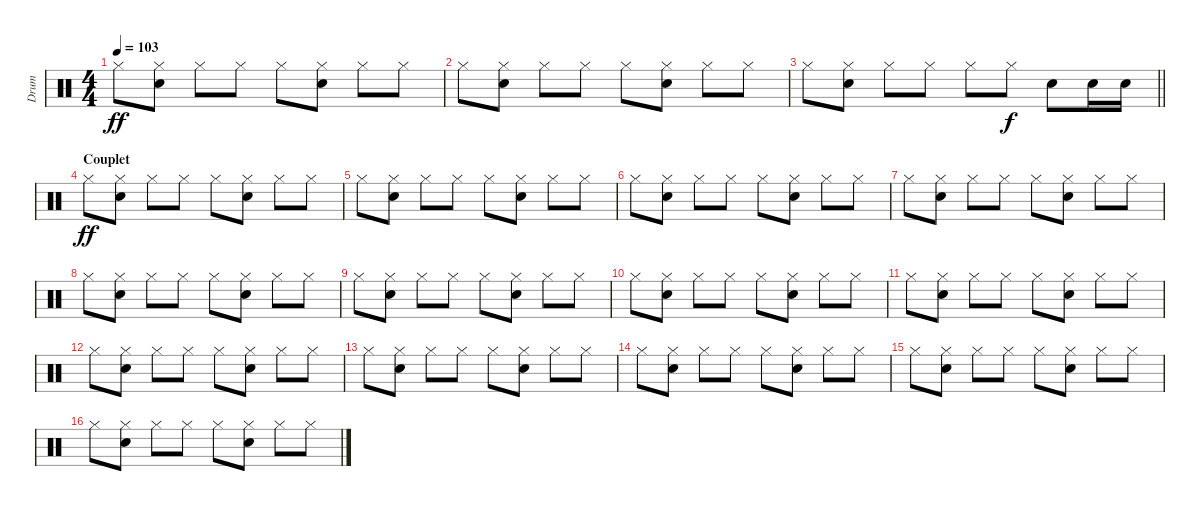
\track ("Drum" "Drum") {instrument percussion}
\staff {score}
\articulation defaults
\ts (4 4)
\tempo 103
\clef neutral
\ks c "Hi-Hat (closed)".8{dy ff}
("Hi-Hat (closed)" "Electric Snare (hit)").8 "Hi-Hat (closed)".8 "Hi-Hat (closed)".8 "Hi-Hat (closed)".8 ("Hi-Hat (closed)" "Electric Snare (hit)").8 "Hi-Hat (closed)".8 "Hi-Hat (closed)".8 |
"Hi-Hat (closed)".8 ("Hi-Hat (closed)" "Electric Snare (hit)").8 "Hi-Hat (closed)".8 "Hi-Hat (closed)".8 "Hi-Hat (closed)".8 ("Hi-Hat (closed)" "Electric Snare (hit)").8 "Hi-Hat (closed)".8 "Hi-Hat (closed)".8 |
\barLineRight lightlight "Hi-Hat (closed)".8
("Hi-Hat (closed)" "Electric Snare (hit)").8 "Hi-Hat (closed)".8 "Hi-Hat (closed)".8 "Hi-Hat (closed)".8 "Hi-Hat (closed)".8{dy f} "Snare (hit) 2".8 "Snare (hit) 2".16 "Snare (hit) 2".16 |
\section ("" "Couplet")
"Hi-Hat (closed)".8{dy ff} ("Hi-Hat (closed)" "Electric Snare (hit)").8 "Hi-Hat (closed)".8 "Hi-Hat (closed)".8 "Hi-Hat (closed)".8 ("Hi-Hat (closed)" "Electric Snare (hit)").8 "Hi-Hat (closed)".8 "Hi-Hat (closed)".8 |
"Hi-Hat (closed)".8 ("Hi-Hat (closed)" "Electric Snare (hit)").8 "Hi-Hat (closed)".8 "Hi-Hat (closed)".8 "Hi-Hat (closed)".8 ("Hi-Hat (closed)" "Electric Snare (hit)").8 "Hi-Hat (closed)".8 "Hi-Hat (closed)".8 |
"Hi-Hat (closed)".8 ("Hi-Hat (closed)" "Electric Snare (hit)").8 "Hi-Hat (closed)".8 "Hi-Hat (closed)".8 "Hi-Hat (closed)".8 ("Hi-Hat (closed)" "Electric Snare (hit)").8 "Hi-Hat (closed)".8 "Hi-Hat (closed)".8 |
"Hi-Hat (closed)".8 ("Hi-Hat (closed)" "Electric Snare (hit)").8 "Hi-Hat (closed)".8 "Hi-Hat (closed)".8 "Hi-Hat (closed)".8 ("Hi-Hat (closed)" "Electric Snare (hit)").8 "Hi-Hat (closed)".8 "Hi-Hat (closed)".8 |
"Hi-Hat (closed)".8 ("Hi-Hat (closed)" "Electric Snare (hit)").8 "Hi-Hat (closed)".8 "Hi-Hat (closed)".8 "Hi-Hat (closed)".8 ("Hi-Hat (closed)" "Electric Snare (hit)").8 "Hi-Hat (closed)".8 "Hi-Hat (closed)".8 |
"Hi-Hat (closed)".8 ("Hi-Hat (closed)" "Electric Snare (hit)").8 "Hi-Hat (closed)".8 "Hi-Hat (closed)".8 "Hi-Hat (closed)".8 ("Hi-Hat (closed)" "Electric Snare (hit)").8 "Hi-Hat (closed)".8 "Hi-Hat (closed)".8 |
"Hi-Hat (closed)".8 ("Hi-Hat (closed)" "Electric Snare (hit)").8 "Hi-Hat (closed)".8 "Hi-Hat (closed)".8 "Hi-Hat (closed)".8 ("Hi-Hat (closed)" "Electric Snare (hit)").8 "Hi-Hat (closed)".8 "Hi-Hat (closed)".8 |
"Hi-Hat (closed)".8 ("Hi-Hat (closed)" "Electric Snare (hit)").8 "Hi-Hat (closed)".8 "Hi-Hat (closed)".8 "Hi-Hat (closed)".8 ("Hi-Hat (closed)" "Electric Snare (hit)").8 "Hi-Hat (closed)".8 "Hi-Hat (closed)".8 |
"Hi-Hat (closed)".8 ("Hi-Hat (closed)" "Electric Snare (hit)").8 "Hi-Hat (closed)".8 "Hi-Hat (closed)".8 "Hi-Hat (closed)".8 ("Hi-Hat (closed)" "Electric Snare (hit)").8 "Hi-Hat (closed)".8 "Hi-Hat (closed)".8 |
"Hi-Hat (closed)".8 ("Hi-Hat (closed)" "Electric Snare (hit)").8 "Hi-Hat (closed)".8 "Hi-Hat (closed)".8 "Hi-Hat (closed)".8 ("Hi-Hat (closed)" "Electric Snare (hit)").8 "Hi-Hat (closed)".8 "Hi-Hat (closed)".8 |
"Hi-Hat (closed)".8 ("Hi-Hat (closed)" "Electric Snare (hit)").8 "Hi-Hat (closed)".8 "Hi-Hat (closed)".8 "Hi-Hat (closed)".8 ("Hi-Hat (closed)" "Electric Snare (hit)").8 "Hi-Hat (closed)".8 "Hi-Hat (closed)".8 |
"Hi-Hat (closed)".8 ("Hi-Hat (closed)" "Electric Snare (hit)").8 "Hi-Hat (closed)".8 "Hi-Hat (closed)".8 "Hi-Hat (closed)".8 ("Hi-Hat (closed)" "Electric Snare (hit)").8 "Hi-Hat (closed)".8 "Hi-Hat (closed)".8 |
"Hi-Hat (closed)".8 ("Hi-Hat (closed)" "Electric Snare (hit)").8 "Hi-Hat (closed)".8 "Hi-Hat (closed)".8 "Hi-Hat (closed)".8 ("Hi-Hat (closed)" "Electric Snare (hit)").8 "Hi-Hat (closed)".8 "Hi-Hat (closed)".8
